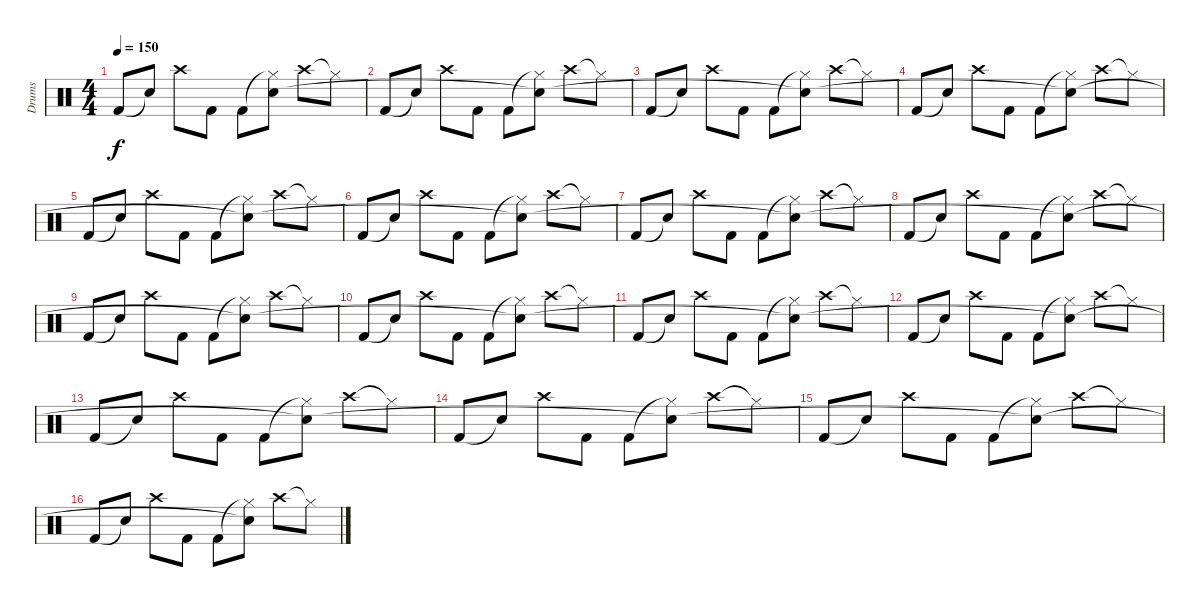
\track ("Drums" "Drums") {instrument percussion}
\staff {score}
\articulation defaults
\ts (4 4)
\tempo 150
\clef neutral
\ks c "Kick (hit) 2".8{dy f} "Snare (hit)"{t}.8 "Crash high (hit)".8 "Kick (hit) 2".8 "Kick (hit) 2".8
("Hi-Hat (closed)"{t} "Snare (hit)"{t}).8 "Crash high (hit)".8 "Hi-Hat (closed)"{t}.8 |
"Kick (hit) 2".8 "Snare (hit)"{t}.8 "Crash high (hit)".8 "Kick (hit) 2".8 "Kick (hit) 2".8 ("Hi-Hat (closed)"{t} "Snare (hit)"{t}).8 "Crash high (hit)".8 "Hi-Hat (closed)"{t}.8 |
"Kick (hit) 2".8 "Snare (hit)"{t}.8 "Crash high (hit)".8 "Kick (hit) 2".8 "Kick (hit) 2".8 ("Hi-Hat (closed)"{t} "Snare (hit)"{t}).8 "Crash high (hit)".8 "Hi-Hat (closed)"{t}.8 |
"Kick (hit) 2".8 "Snare (hit)"{t}.8 "Crash high (hit)".8 "Kick (hit) 2".8 "Kick (hit) 2".8 ("Hi-Hat (closed)"{t} "Snare (hit)"{t}).8 "Crash high (hit)".8 "Hi-Hat (closed)"{t}.8 |
"Kick (hit) 2".8 "Snare (hit)"{t}.8 "Crash high (hit)".8 "Kick (hit) 2".8 "Kick (hit) 2".8 ("Hi-Hat (closed)"{t} "Snare (hit)"{t}).8 "Crash high (hit)".8 "Hi-Hat (closed)"{t}.8 |
"Kick (hit) 2".8 "Snare (hit)"{t}.8 "Crash high (hit)".8 "Kick (hit) 2".8 "Kick (hit) 2".8 ("Hi-Hat (closed)"{t} "Snare (hit)"{t}).8 "Crash high (hit)".8 "Hi-Hat (closed)"{t}.8 |
"Kick (hit) 2".8 "Snare (hit)"{t}.8 "Crash high (hit)".8 "Kick (hit) 2".8 "Kick (hit) 2".8 ("Hi-Hat (closed)"{t} "Snare (hit)"{t}).8 "Crash high (hit)".8 "Hi-Hat (closed)"{t}.8 |
"Kick (hit) 2".8 "Snare (hit)"{t}.8 "Crash high (hit)".8 "Kick (hit) 2".8 "Kick (hit) 2".8 ("Hi-Hat (closed)"{t} "Snare (hit)"{t}).8 "Crash high (hit)".8 "Hi-Hat (closed)"{t}.8 |
"Kick (hit) 2".8 "Snare (hit)"{t}.8 "Crash high (hit)".8 "Kick (hit) 2".8 "Kick (hit) 2".8 ("Hi-Hat (closed)"{t} "Snare (hit)"{t}).8 "Crash high (hit)".8 "Hi-Hat (closed)"{t}.8 |
"Kick (hit) 2".8 "Snare (hit)"{t}.8 "Crash high (hit)".8 "Kick (hit) 2".8 "Kick (hit) 2".8 ("Hi-Hat (closed)"{t} "Snare (hit)"{t}).8 "Crash high (hit)".8 "Hi-Hat (closed)"{t}.8 |
"Kick (hit) 2".8 "Snare (hit)"{t}.8 "Crash high (hit)".8 "Kick (hit) 2".8 "Kick (hit) 2".8 ("Hi-Hat (closed)"{t} "Snare (hit)"{t}).8 "Crash high (hit)".8 "Hi-Hat (closed)"{t}.8 |
"Kick (hit) 2".8 "Snare (hit)"{t}.8 "Crash high (hit)".8 "Kick (hit) 2".8 "Kick (hit) 2".8 ("Hi-Hat (closed)"{t} "Snare (hit)"{t}).8 "Crash high (hit)".8 "Hi-Hat (closed)"{t}.8 |
"Kick (hit) 2".8{volume 6} "Snare (hit)"{t}.8 "Crash high (hit)".8 "Kick (hit) 2".8 "Kick (hit) 2".8 ("Hi-Hat (closed)"{t} "Snare (hit)"{t}).8 "Crash high (hit)".8 "Hi-Hat (closed)"{t}.8 |
"Kick (hit) 2".8 "Snare (hit)"{t}.8 "Crash high (hit)".8 "Kick (hit) 2".8 "Kick (hit) 2".8 ("Hi-Hat (closed)"{t} "Snare (hit)"{t}).8 "Crash high (hit)".8 "Hi-Hat (closed)"{t}.8 |
"Kick (hit) 2".8 "Snare (hit)"{t}.8 "Crash high (hit)".8 "Kick (hit) 2".8 "Kick (hit) 2".8 ("Hi-Hat (closed)"{t} "Snare (hit)"{t}).8 "Crash high (hit)".8 "Hi-Hat (closed)"{t}.8 |
"Kick (hit) 2".8 "Snare (hit)"{t}.8 "Crash high (hit)".8 "Kick (hit) 2".8 "Kick (hit) 2".8 ("Hi-Hat (closed)"{t} "Snare (hit)"{t}).8 "Crash high (hit)".8 "Hi-Hat (closed)"{t}.8
